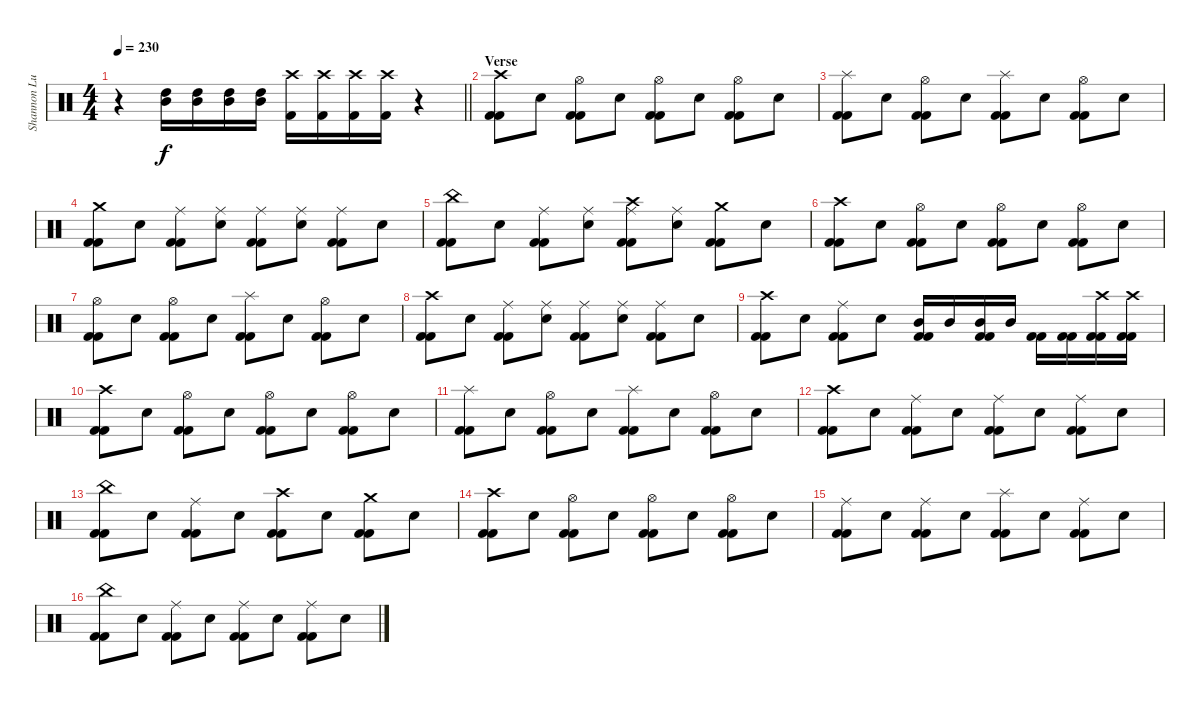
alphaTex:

\track ("Shannon Lucas" "Shannon Lu") {instrument percussion}
\staff {score}
\articulation defaults
\ts (4 4)
\tempo 230
\clef neutral
\barLineRight lightlight
\ks c
r.4{dy f} ("High Tom (hit)" "Mid Tom (hit)").16 ("High Tom (hit)" "Mid Tom (hit)").16 ("High Tom (hit)" "Mid Tom (hit)").16 ("High Tom (hit)" "Mid Tom (hit)").16 ("Crash high (hit)" "Kick (hit) 2").16 ("Crash high (hit)" "Kick (hit) 2").16 ("Crash high (hit)" "Kick (hit) 2").16 ("Crash high (hit)" "Kick (hit) 2").16 r.4 |
\section ("" "Verse")
("Crash high (hit)" "Kick (hit) 2" "Kick (hit) 2").8 "Electric Snare (hit)".8 ("Hi-Hat (open)" "Kick (hit) 2" "Kick (hit) 2").8 "Electric Snare (hit)".8 ("Hi-Hat (open)" "Kick (hit) 2" "Kick (hit) 2").8 "Electric Snare (hit)".8 ("Hi-Hat (open)" "Kick (hit) 2" "Kick (hit) 2").8 "Electric Snare (hit)".8 |
("Splash (hit)" "Kick (hit) 2" "Kick (hit) 2").8 "Electric Snare (hit)".8 ("Hi-Hat (open)" "Kick (hit) 2" "Kick (hit) 2").8 "Electric Snare (hit)".8 ("Splash (hit)" "Kick (hit) 2" "Kick (hit) 2").8 "Electric Snare (hit)".8 ("Hi-Hat (open)" "Kick (hit) 2" "Kick (hit) 2").8 "Electric Snare (hit)".8 |
("Crash medium (hit)" "Kick (hit) 2" "Kick (hit) 2").8 "Electric Snare (hit)".8 ("Ride (middle)" "Kick (hit) 2" "Kick (hit) 2").8 ("Ride (middle)" "Electric Snare (hit)").8 ("Ride (middle)" "Kick (hit) 2" "Kick (hit) 2").8 ("Ride (middle)" "Electric Snare (hit)").8 ("Ride (middle)" "Kick (hit) 2" "Kick (hit) 2").8 "Electric Snare (hit)".8 |
("China (hit)" "Kick (hit) 2" "Kick (hit) 2").8 "Electric Snare (hit)".8 ("Ride (middle)" "Kick (hit) 2" "Kick (hit) 2").8 ("Ride (middle)" "Electric Snare (hit)").8 ("Crash high (hit)" "Ride (middle)" "Kick (hit) 2" "Kick (hit) 2").8 ("Ride (middle)" "Electric Snare (hit)").8 ("Crash medium (hit)" "Kick (hit) 2" "Kick (hit) 2").8 "Electric Snare (hit)".8 |
("Crash high (hit)" "Kick (hit) 2" "Kick (hit) 2").8 "Electric Snare (hit)".8 ("Hi-Hat (open)" "Kick (hit) 2" "Kick (hit) 2").8 "Electric Snare (hit)".8 ("Hi-Hat (open)" "Kick (hit) 2" "Kick (hit) 2").8 "Electric Snare (hit)".8 ("Hi-Hat (open)" "Kick (hit) 2" "Kick (hit) 2").8 "Electric Snare (hit)".8 |
("Hi-Hat (open)" "Kick (hit) 2" "Kick (hit) 2").8 "Electric Snare (hit)".8 ("Hi-Hat (open)" "Kick (hit) 2" "Kick (hit) 2").8 "Electric Snare (hit)".8 ("Splash (hit)" "Kick (hit) 2" "Kick (hit) 2").8 "Electric Snare (hit)".8 ("Hi-Hat (open)" "Kick (hit) 2" "Kick (hit) 2").8 "Electric Snare (hit)".8 |
("Crash high (hit)" "Kick (hit) 2" "Kick (hit) 2").8 "Electric Snare (hit)".8 ("Ride (middle)" "Kick (hit) 2" "Kick (hit) 2").8 ("Ride (middle)" "Electric Snare (hit)").8 ("Ride (middle)" "Kick (hit) 2" "Kick (hit) 2").8 ("Ride (middle)" "Electric Snare (hit)").8 ("Ride (middle)" "Kick (hit) 2" "Kick (hit) 2").8 "Electric Snare (hit)".8 |
("Crash high (hit)" "Kick (hit) 2" "Kick (hit) 2").8 "Electric Snare (hit)".8 ("Ride (middle)" "Kick (hit) 2" "Kick (hit) 2").8 "Electric Snare (hit)".8 ("Mid Tom (hit)" "Kick (hit) 2" "Kick (hit) 2").16 "Mid Tom (hit)".16 ("Mid Tom (hit)" "Kick (hit) 2" "Kick (hit) 2").16 "Mid Tom (hit)".16 ("Kick (hit) 2" "Kick (hit) 2").16 ("Kick (hit) 2" "Kick (hit) 2").16 ("Crash high (hit)" "Kick (hit) 2" "Kick (hit) 2").16 ("Crash high (hit)" "Kick (hit) 2" "Kick (hit) 2").16 |
("Crash high (hit)" "Kick (hit) 2" "Kick (hit) 2").8 "Electric Snare (hit)".8 ("Hi-Hat (open)" "Kick (hit) 2" "Kick (hit) 2").8 "Electric Snare (hit)".8 ("Hi-Hat (open)" "Kick (hit) 2" "Kick (hit) 2").8 "Electric Snare (hit)".8 ("Hi-Hat (open)" "Kick (hit) 2" "Kick (hit) 2").8 "Electric Snare (hit)".8 |
("Splash (hit)" "Kick (hit) 2" "Kick (hit) 2").8 "Electric Snare (hit)".8 ("Hi-Hat (open)" "Kick (hit) 2" "Kick (hit) 2").8 "Electric Snare (hit)".8 ("Splash (hit)" "Kick (hit) 2" "Kick (hit) 2").8 "Electric Snare (hit)".8 ("Hi-Hat (open)" "Kick (hit) 2" "Kick (hit) 2").8 "Electric Snare (hit)".8 |
("Crash high (hit)" "Kick (hit) 2" "Kick (hit) 2").8 "Electric Snare (hit)".8 ("Ride (middle)" "Kick (hit) 2" "Kick (hit) 2").8 "Electric Snare (hit)".8 ("Ride (middle)" "Kick (hit) 2" "Kick (hit) 2").8 "Electric Snare (hit)".8 ("Ride (middle)" "Kick (hit) 2" "Kick (hit) 2").8 "Electric Snare (hit)".8 |
("China (hit)" "Kick (hit) 2" "Kick (hit) 2").8 "Electric Snare (hit)".8 ("Ride (middle)" "Kick (hit) 2" "Kick (hit) 2").8 "Electric Snare (hit)".8 ("Crash high (hit)" "Kick (hit) 2" "Kick (hit) 2").8 "Electric Snare (hit)".8 ("Crash medium (hit)" "Kick (hit) 2" "Kick (hit) 2").8 "Electric Snare (hit)".8 |
("Crash high (hit)" "Kick (hit) 2" "Kick (hit) 2").8 "Electric Snare (hit)".8 ("Hi-Hat (open)" "Kick (hit) 2" "Kick (hit) 2").8 "Electric Snare (hit)".8 ("Hi-Hat (open)" "Kick (hit) 2" "Kick (hit) 2").8 "Electric Snare (hit)".8 ("Hi-Hat (open)" "Kick (hit) 2" "Kick (hit) 2").8 "Electric Snare (hit)".8 |
("Ride (middle)" "Kick (hit) 2" "Kick (hit) 2").8 "Electric Snare (hit)".8 ("Ride (middle)" "Kick (hit) 2" "Kick (hit) 2").8 "Electric Snare (hit)".8 ("Splash (hit)" "Kick (hit) 2" "Kick (hit) 2").8 "Electric Snare (hit)".8 ("Ride (middle)" "Kick (hit) 2" "Kick (hit) 2").8 "Electric Snare (hit)".8 |
("China (hit)" "Kick (hit) 2" "Kick (hit) 2").8 "Electric Snare (hit)".8 ("Ride (middle)" "Kick (hit) 2" "Kick (hit) 2").8 "Electric Snare (hit)".8 ("Ride (middle)" "Kick (hit) 2" "Kick (hit) 2").8 "Electric Snare (hit)".8 ("Ride (middle)" "Kick (hit) 2" "Kick (hit) 2").8 "Electric Snare (hit)".8
